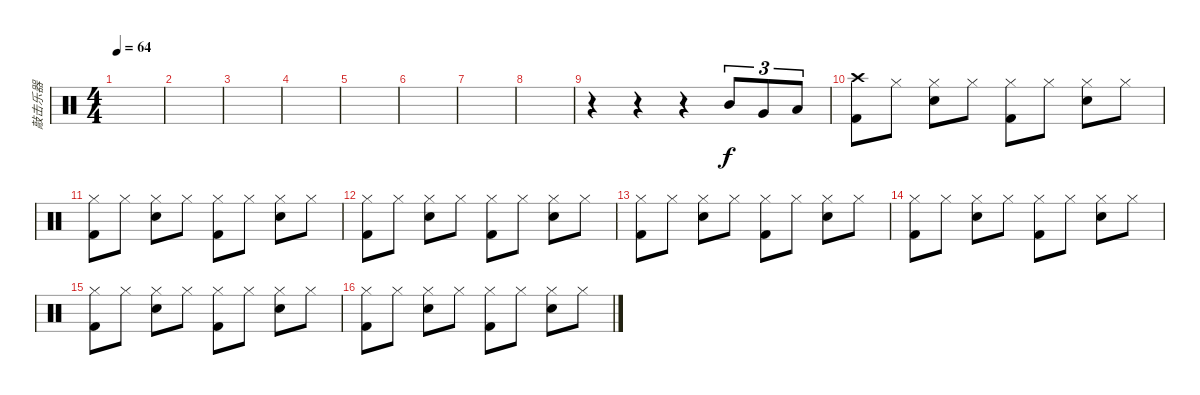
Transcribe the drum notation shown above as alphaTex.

\track ("敲击乐器" "敲击乐器") {instrument percussion}
\staff {score}
\articulation defaults
\ts (4 4)
\tempo 64
\clef neutral
\ks c
|
|
|
|
|
|
|
|
r.4 r.4 r.4 "Mid Tom (hit)".8{tu (3 2)} "Very Low Tom (hit)".8{tu (3 2)} "Low Floor Tom (hit)".8{tu (3 2)} |
("Kick (hit) 2" "Crash high (hit)").8 "Hi-Hat (closed)".8 ("Snare (hit) 2" "Hi-Hat (closed)").8 "Hi-Hat (closed)".8 ("Kick (hit) 2" "Hi-Hat (closed)").8 "Hi-Hat (closed)".8 ("Snare (hit) 2" "Hi-Hat (closed)").8 "Hi-Hat (closed)".8 |
("Kick (hit) 2" "Hi-Hat (closed)").8 "Hi-Hat (closed)".8 ("Snare (hit) 2" "Hi-Hat (closed)").8 "Hi-Hat (closed)".8 ("Kick (hit) 2" "Hi-Hat (closed)").8 "Hi-Hat (closed)".8 ("Snare (hit) 2" "Hi-Hat (closed)").8 "Hi-Hat (closed)".8 |
("Kick (hit) 2" "Hi-Hat (closed)").8 "Hi-Hat (closed)".8 ("Snare (hit) 2" "Hi-Hat (closed)").8 "Hi-Hat (closed)".8 ("Kick (hit) 2" "Hi-Hat (closed)").8 "Hi-Hat (closed)".8 ("Snare (hit) 2" "Hi-Hat (closed)").8 "Hi-Hat (closed)".8 |
("Kick (hit) 2" "Hi-Hat (closed)").8 "Hi-Hat (closed)".8 ("Snare (hit) 2" "Hi-Hat (closed)").8 "Hi-Hat (closed)".8 ("Kick (hit) 2" "Hi-Hat (closed)").8 "Hi-Hat (closed)".8 ("Snare (hit) 2" "Hi-Hat (closed)").8 "Hi-Hat (closed)".8 |
("Kick (hit) 2" "Hi-Hat (closed)").8 "Hi-Hat (closed)".8 ("Snare (hit) 2" "Hi-Hat (closed)").8 "Hi-Hat (closed)".8 ("Kick (hit) 2" "Hi-Hat (closed)").8 "Hi-Hat (closed)".8 ("Snare (hit) 2" "Hi-Hat (closed)").8 "Hi-Hat (closed)".8 |
("Kick (hit) 2" "Hi-Hat (closed)").8 "Hi-Hat (closed)".8 ("Snare (hit) 2" "Hi-Hat (closed)").8 "Hi-Hat (closed)".8 ("Kick (hit) 2" "Hi-Hat (closed)").8 "Hi-Hat (closed)".8 ("Snare (hit) 2" "Hi-Hat (closed)").8 "Hi-Hat (closed)".8 |
("Kick (hit) 2" "Hi-Hat (closed)").8 "Hi-Hat (closed)".8 ("Snare (hit) 2" "Hi-Hat (closed)").8 "Hi-Hat (closed)".8 ("Kick (hit) 2" "Hi-Hat (closed)").8 "Hi-Hat (closed)".8 ("Snare (hit) 2" "Hi-Hat (closed)").8 "Hi-Hat (closed)".8
